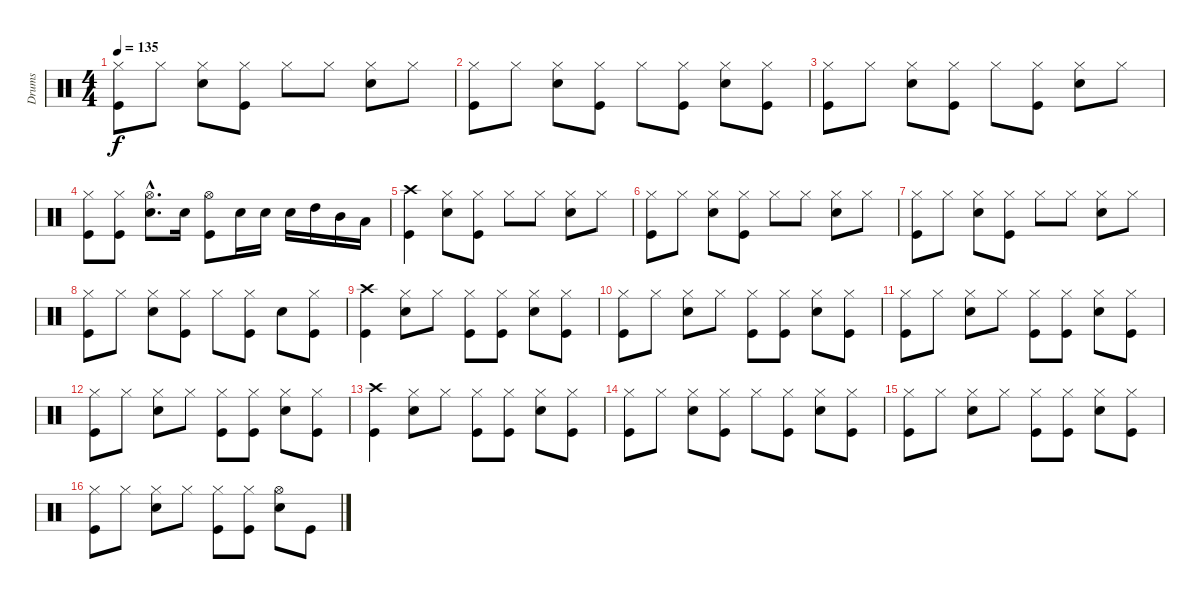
\track ("Drums" "Drums") {instrument percussion}
\staff {score}
\articulation defaults
\ts (4 4)
\tempo 135
\clef neutral
\ks c
("Kick (hit)" "Hi-Hat (closed)").8{dy f} "Hi-Hat (closed)".8 ("Electric Snare (hit)" "Hi-Hat (closed)").8 ("Kick (hit)" "Hi-Hat (closed)").8 "Hi-Hat (closed)".8 "Hi-Hat (closed)".8 ("Electric Snare (hit)" "Hi-Hat (closed)").8 "Hi-Hat (closed)".8 |
("Kick (hit)" "Hi-Hat (closed)").8 "Hi-Hat (closed)".8 ("Electric Snare (hit)" "Hi-Hat (closed)").8 ("Kick (hit)" "Hi-Hat (closed)").8 "Hi-Hat (closed)".8 ("Kick (hit)" "Hi-Hat (closed)").8 ("Electric Snare (hit)" "Hi-Hat (closed)").8 ("Kick (hit)" "Hi-Hat (closed)").8 |
("Kick (hit)" "Hi-Hat (closed)").8 "Hi-Hat (closed)".8 ("Electric Snare (hit)" "Hi-Hat (closed)").8 ("Kick (hit)" "Hi-Hat (closed)").8 "Hi-Hat (closed)".8 ("Kick (hit)" "Hi-Hat (closed)").8 ("Electric Snare (hit)" "Hi-Hat (closed)").8 "Hi-Hat (closed)".8 |
("Kick (hit)" "Hi-Hat (closed)").8 ("Kick (hit)" "Hi-Hat (closed)").8 ("Electric Snare (hit)"{hac} "Hi-Hat (open)"{hac}).8{d} "Electric Snare (hit)".16 ("Kick (hit)" "Hi-Hat (open)").8 "Electric Snare (hit)".16 "Electric Snare (hit)".16 "Electric Snare (hit)".16 "High Tom (hit)".16 "Mid Tom (hit)".16 "Low Tom (hit)".16 |
("Kick (hit)" "Crash high (hit)").4 ("Electric Snare (hit)" "Hi-Hat (closed)").8 ("Kick (hit)" "Hi-Hat (closed)").8 "Hi-Hat (closed)".8 "Hi-Hat (closed)".8 ("Electric Snare (hit)" "Hi-Hat (closed)").8 "Hi-Hat (closed)".8 |
("Kick (hit)" "Hi-Hat (closed)").8 "Hi-Hat (closed)".8 ("Electric Snare (hit)" "Hi-Hat (closed)").8 ("Kick (hit)" "Hi-Hat (closed)").8 "Hi-Hat (closed)".8 "Hi-Hat (closed)".8 ("Electric Snare (hit)" "Hi-Hat (closed)").8 "Hi-Hat (closed)".8 |
("Kick (hit)" "Hi-Hat (closed)").8 "Hi-Hat (closed)".8 ("Electric Snare (hit)" "Hi-Hat (closed)").8 ("Kick (hit)" "Hi-Hat (closed)").8 "Hi-Hat (closed)".8 "Hi-Hat (closed)".8 ("Electric Snare (hit)" "Hi-Hat (closed)").8 "Hi-Hat (closed)".8 |
("Kick (hit)" "Hi-Hat (closed)").8 "Hi-Hat (closed)".8 ("Electric Snare (hit)" "Hi-Hat (closed)").8 ("Kick (hit)" "Hi-Hat (closed)").8 "Hi-Hat (closed)".8 ("Kick (hit)" "Hi-Hat (closed)").8 "Electric Snare (hit)".8 ("Kick (hit)" "Hi-Hat (closed)").8 |
("Kick (hit)" "Crash high (hit)").4 ("Electric Snare (hit)" "Hi-Hat (closed)").8 "Hi-Hat (closed)".8 ("Kick (hit)" "Hi-Hat (closed)").8 ("Kick (hit)" "Hi-Hat (closed)").8 ("Electric Snare (hit)" "Hi-Hat (closed)").8 ("Kick (hit)" "Hi-Hat (closed)").8 |
("Kick (hit)" "Hi-Hat (closed)").8 "Hi-Hat (closed)".8 ("Electric Snare (hit)" "Hi-Hat (closed)").8 "Hi-Hat (closed)".8 ("Kick (hit)" "Hi-Hat (closed)").8 ("Kick (hit)" "Hi-Hat (closed)").8 ("Electric Snare (hit)" "Hi-Hat (closed)").8 ("Kick (hit)" "Hi-Hat (closed)").8 |
("Kick (hit)" "Hi-Hat (closed)").8 "Hi-Hat (closed)".8 ("Electric Snare (hit)" "Hi-Hat (closed)").8 "Hi-Hat (closed)".8 ("Kick (hit)" "Hi-Hat (closed)").8 ("Kick (hit)" "Hi-Hat (closed)").8 ("Electric Snare (hit)" "Hi-Hat (closed)").8 ("Kick (hit)" "Hi-Hat (closed)").8 |
("Kick (hit)" "Hi-Hat (closed)").8 "Hi-Hat (closed)".8 ("Electric Snare (hit)" "Hi-Hat (closed)").8 "Hi-Hat (closed)".8 ("Kick (hit)" "Hi-Hat (closed)").8 ("Kick (hit)" "Hi-Hat (closed)").8 ("Electric Snare (hit)" "Hi-Hat (closed)").8 ("Kick (hit)" "Hi-Hat (closed)").8 |
("Kick (hit)" "Crash high (hit)").4 ("Electric Snare (hit)" "Hi-Hat (closed)").8 "Hi-Hat (closed)".8 ("Kick (hit)" "Hi-Hat (closed)").8 ("Kick (hit)" "Hi-Hat (closed)").8 ("Electric Snare (hit)" "Hi-Hat (closed)").8 ("Kick (hit)" "Hi-Hat (closed)").8 |
("Kick (hit)" "Hi-Hat (closed)").8 "Hi-Hat (closed)".8 ("Electric Snare (hit)" "Hi-Hat (closed)").8 ("Kick (hit)" "Hi-Hat (closed)").8 "Hi-Hat (closed)".8 ("Kick (hit)" "Hi-Hat (closed)").8 ("Electric Snare (hit)" "Hi-Hat (closed)").8 ("Kick (hit)" "Hi-Hat (closed)").8 |
("Kick (hit)" "Hi-Hat (closed)").8 "Hi-Hat (closed)".8 ("Electric Snare (hit)" "Hi-Hat (closed)").8 "Hi-Hat (closed)".8 ("Kick (hit)" "Hi-Hat (closed)").8 ("Kick (hit)" "Hi-Hat (closed)").8 ("Electric Snare (hit)" "Hi-Hat (closed)").8 ("Kick (hit)" "Hi-Hat (closed)").8 |
("Kick (hit)" "Hi-Hat (closed)").8 "Hi-Hat (closed)".8 ("Electric Snare (hit)" "Hi-Hat (closed)").8 "Hi-Hat (closed)".8 ("Kick (hit)" "Hi-Hat (closed)").8 ("Kick (hit)" "Hi-Hat (closed)").8 ("Electric Snare (hit)" "Hi-Hat (open)").8 "Kick (hit)".8
